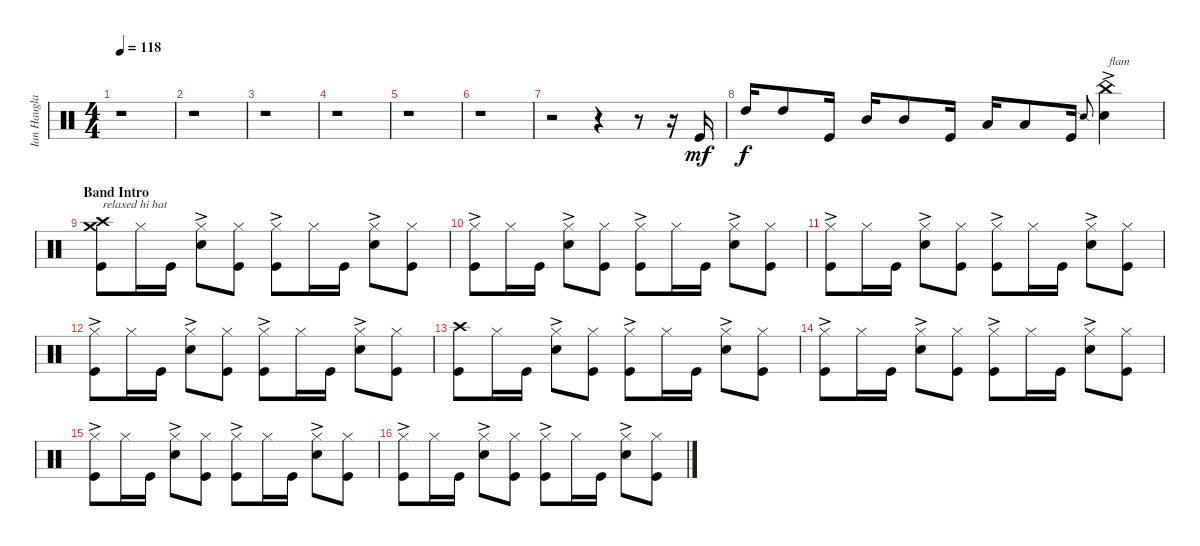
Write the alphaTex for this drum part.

\track ("Ian Haugland - Tama Imperialstar Kit - " "Ian Haugla") {instrument percussion}
\staff {score}
\articulation defaults
\ts (4 4)
\tempo 118
\clef neutral
\ks c
r.1{dy mf} |
r.1 |
r.1 |
r.1 |
r.1 |
r.1 |
r.2 r.4 r.8 r.16 "Kick (hit)".16 |
"High Tom (hit)".16{dy f} "High Tom (hit)".8 "Kick (hit)".16 "Mid Tom (hit)".16 "Mid Tom (hit)".8 "Kick (hit)".16 "Low Floor Tom (hit)".16 "Low Floor Tom (hit)".8 "Kick (hit)".16 "Snare (side stick) 2".8{gr onbeat} ("China (hit)" "Snare (hit) 2"{ac}).4{txt "flam"} |
\section ("" "Band Intro")
("Crash high (hit)" "Crash medium (hit)" "Kick (hit)").8{txt "relaxed hi hat"} "Hi-Hat (closed)".16 "Kick (hit)".16 ("Hi-Hat (closed)"{ac} "Snare (hit) 2").8 ("Hi-Hat (closed)" "Kick (hit)").8 ("Hi-Hat (closed)"{ac} "Kick (hit)").8 "Hi-Hat (closed)".16 "Kick (hit)".16 ("Hi-Hat (closed)"{ac} "Snare (hit) 2").8 ("Hi-Hat (closed)" "Kick (hit)").8 |
("Hi-Hat (closed)"{ac} "Kick (hit)").8 "Hi-Hat (closed)".16 "Kick (hit)".16 ("Hi-Hat (closed)"{ac} "Snare (hit) 2").8 ("Hi-Hat (closed)" "Kick (hit)").8 ("Hi-Hat (closed)"{ac} "Kick (hit)").8 "Hi-Hat (closed)".16 "Kick (hit)".16 ("Hi-Hat (closed)"{ac} "Snare (hit) 2").8 ("Hi-Hat (closed)" "Kick (hit)").8 |
("Hi-Hat (closed)"{ac} "Kick (hit)").8 "Hi-Hat (closed)".16 "Kick (hit)".16 ("Hi-Hat (closed)"{ac} "Snare (hit) 2").8 ("Hi-Hat (closed)" "Kick (hit)").8 ("Hi-Hat (closed)"{ac} "Kick (hit)").8 "Hi-Hat (closed)".16 "Kick (hit)".16 ("Hi-Hat (closed)"{ac} "Snare (hit) 2").8 ("Hi-Hat (closed)" "Kick (hit)").8 |
("Hi-Hat (closed)"{ac} "Kick (hit)").8 "Hi-Hat (closed)".16 "Kick (hit)".16 ("Hi-Hat (closed)"{ac} "Snare (hit) 2").8 ("Hi-Hat (closed)" "Kick (hit)").8 ("Hi-Hat (closed)"{ac} "Kick (hit)").8 "Hi-Hat (closed)".16 "Kick (hit)".16 ("Hi-Hat (closed)"{ac} "Snare (hit) 2").8 ("Hi-Hat (closed)" "Kick (hit)").8 |
("Crash high (hit)" "Kick (hit)").8 "Hi-Hat (closed)".16 "Kick (hit)".16 ("Hi-Hat (closed)"{ac} "Snare (hit) 2").8 ("Hi-Hat (closed)" "Kick (hit)").8 ("Hi-Hat (closed)"{ac} "Kick (hit)").8 "Hi-Hat (closed)".16 "Kick (hit)".16 ("Hi-Hat (closed)"{ac} "Snare (hit) 2").8 ("Hi-Hat (closed)" "Kick (hit)").8 |
("Hi-Hat (closed)"{ac} "Kick (hit)").8 "Hi-Hat (closed)".16 "Kick (hit)".16 ("Hi-Hat (closed)"{ac} "Snare (hit) 2").8 ("Hi-Hat (closed)" "Kick (hit)").8 ("Hi-Hat (closed)"{ac} "Kick (hit)").8 "Hi-Hat (closed)".16 "Kick (hit)".16 ("Hi-Hat (closed)"{ac} "Snare (hit) 2").8 ("Hi-Hat (closed)" "Kick (hit)").8 |
("Hi-Hat (closed)"{ac} "Kick (hit)").8 "Hi-Hat (closed)".16 "Kick (hit)".16 ("Hi-Hat (closed)"{ac} "Snare (hit) 2").8 ("Hi-Hat (closed)" "Kick (hit)").8 ("Hi-Hat (closed)"{ac} "Kick (hit)").8 "Hi-Hat (closed)".16 "Kick (hit)".16 ("Hi-Hat (closed)"{ac} "Snare (hit) 2").8 ("Hi-Hat (closed)" "Kick (hit)").8 |
("Hi-Hat (closed)"{ac} "Kick (hit)").8 "Hi-Hat (closed)".16 "Kick (hit)".16 ("Hi-Hat (closed)"{ac} "Snare (hit) 2").8 ("Hi-Hat (closed)" "Kick (hit)").8 ("Hi-Hat (closed)"{ac} "Kick (hit)").8 "Hi-Hat (closed)".16 "Kick (hit)".16 ("Hi-Hat (closed)"{ac} "Snare (hit) 2").8 ("Hi-Hat (closed)" "Kick (hit)").8
